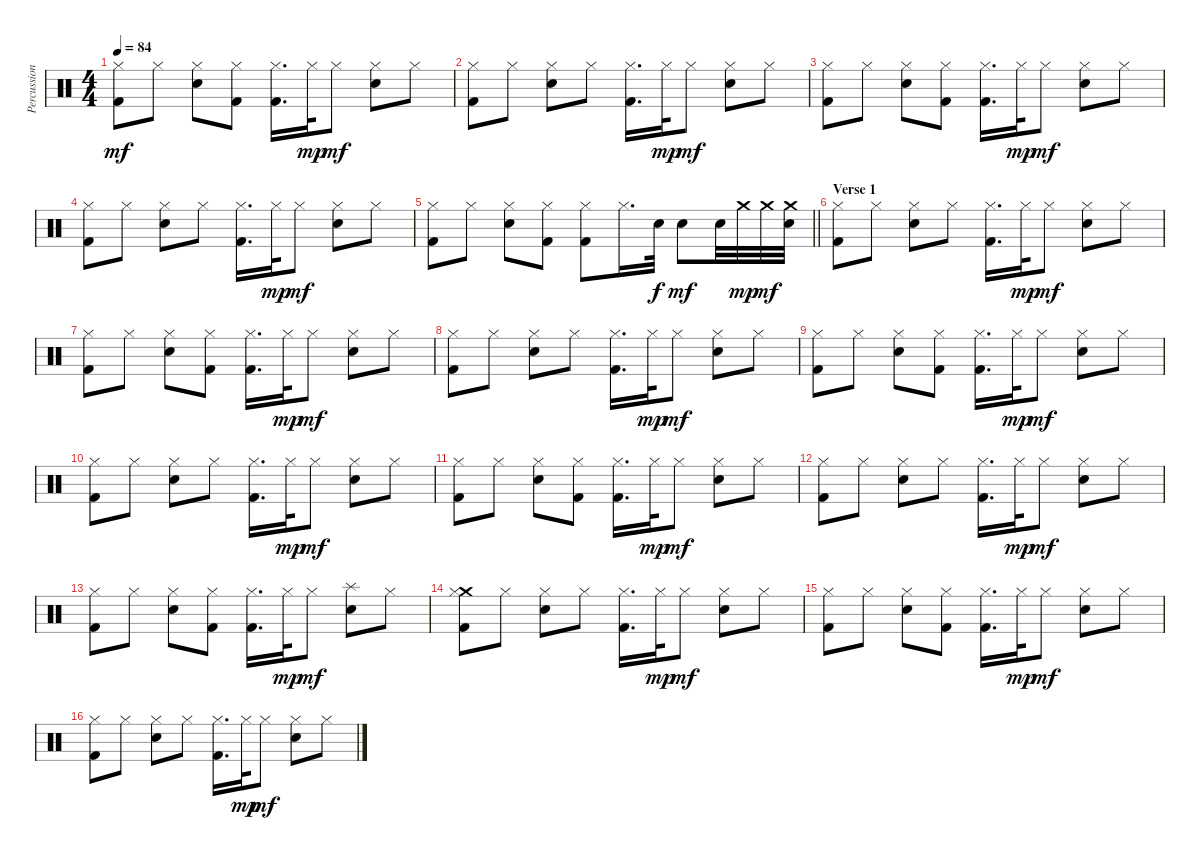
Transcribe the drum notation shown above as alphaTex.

\track ("Percussion" "Percussion") {instrument percussion}
\staff {score}
\articulation defaults
\ts (4 4)
\tempo 84
\clef neutral
\ks c
("Hi-Hat (closed)" "Kick (hit) 2").8{dy mf} "Hi-Hat (closed)".8 ("Hi-Hat (closed)" "Electric Snare (hit)").8 ("Hi-Hat (closed)" "Kick (hit) 2").8 ("Hi-Hat (closed)" "Kick (hit) 2").16{d} "Hi-Hat (closed)".32{dy mp} "Hi-Hat (closed)".8{dy mf} ("Hi-Hat (closed)" "Electric Snare (hit)").8 "Hi-Hat (closed)".8 |
("Hi-Hat (closed)" "Kick (hit) 2").8 "Hi-Hat (closed)".8 ("Hi-Hat (closed)" "Electric Snare (hit)").8 "Hi-Hat (closed)".8 ("Hi-Hat (closed)" "Kick (hit) 2").16{d} "Hi-Hat (closed)".32{dy mp} "Hi-Hat (closed)".8{dy mf} ("Hi-Hat (closed)" "Electric Snare (hit)").8 "Hi-Hat (closed)".8 |
("Hi-Hat (closed)" "Kick (hit) 2").8 "Hi-Hat (closed)".8 ("Hi-Hat (closed)" "Electric Snare (hit)").8 ("Hi-Hat (closed)" "Kick (hit) 2").8 ("Hi-Hat (closed)" "Kick (hit) 2").16{d} "Hi-Hat (closed)".32{dy mp} "Hi-Hat (closed)".8{dy mf} ("Hi-Hat (closed)" "Electric Snare (hit)").8 "Hi-Hat (closed)".8 |
("Hi-Hat (closed)" "Kick (hit) 2").8 "Hi-Hat (closed)".8 ("Hi-Hat (closed)" "Electric Snare (hit)").8 "Hi-Hat (closed)".8 ("Hi-Hat (closed)" "Kick (hit) 2").16{d} "Hi-Hat (closed)".32{dy mp} "Hi-Hat (closed)".8{dy mf} ("Hi-Hat (closed)" "Electric Snare (hit)").8 "Hi-Hat (closed)".8 |
\barLineRight lightlight
("Hi-Hat (closed)" "Kick (hit) 2").8 "Hi-Hat (closed)".8 ("Hi-Hat (closed)" "Electric Snare (hit)").8 ("Hi-Hat (closed)" "Kick (hit) 2").8 ("Hi-Hat (closed)" "Kick (hit) 2").8 "Hi-Hat (closed)".16{d} "Electric Snare (hit)".32{dy f} "Electric Snare (hit)".8{dy mf} "Electric Snare (hit)".32 "Crash medium (hit)".32{dy mp} "Crash medium (hit)".32{dy mf} ("Crash medium (hit)" "Electric Snare (hit)").32 |
\section ("" "Verse 1")
("Hi-Hat (closed)" "Kick (hit) 2").8 "Hi-Hat (closed)".8 ("Hi-Hat (closed)" "Electric Snare (hit)").8 "Hi-Hat (closed)".8 ("Hi-Hat (closed)" "Kick (hit) 2").16{d} "Hi-Hat (closed)".32{dy mp} "Hi-Hat (closed)".8{dy mf} ("Hi-Hat (closed)" "Electric Snare (hit)").8 "Hi-Hat (closed)".8 |
("Hi-Hat (closed)" "Kick (hit) 2").8 "Hi-Hat (closed)".8 ("Hi-Hat (closed)" "Electric Snare (hit)").8 ("Hi-Hat (closed)" "Kick (hit) 2").8 ("Hi-Hat (closed)" "Kick (hit) 2").16{d} "Hi-Hat (closed)".32{dy mp} "Hi-Hat (closed)".8{dy mf} ("Hi-Hat (closed)" "Electric Snare (hit)").8 "Hi-Hat (closed)".8 |
("Hi-Hat (closed)" "Kick (hit) 2").8 "Hi-Hat (closed)".8 ("Hi-Hat (closed)" "Electric Snare (hit)").8 "Hi-Hat (closed)".8 ("Hi-Hat (closed)" "Kick (hit) 2").16{d} "Hi-Hat (closed)".32{dy mp} "Hi-Hat (closed)".8{dy mf} ("Hi-Hat (closed)" "Electric Snare (hit)").8 "Hi-Hat (closed)".8 |
("Hi-Hat (closed)" "Kick (hit) 2").8 "Hi-Hat (closed)".8 ("Hi-Hat (closed)" "Electric Snare (hit)").8 ("Hi-Hat (closed)" "Kick (hit) 2").8 ("Hi-Hat (closed)" "Kick (hit) 2").16{d} "Hi-Hat (closed)".32{dy mp} "Hi-Hat (closed)".8{dy mf} ("Hi-Hat (closed)" "Electric Snare (hit)").8 "Hi-Hat (closed)".8 |
("Hi-Hat (closed)" "Kick (hit) 2").8 "Hi-Hat (closed)".8 ("Hi-Hat (closed)" "Electric Snare (hit)").8 "Hi-Hat (closed)".8 ("Hi-Hat (closed)" "Kick (hit) 2").16{d} "Hi-Hat (closed)".32{dy mp} "Hi-Hat (closed)".8{dy mf} ("Hi-Hat (closed)" "Electric Snare (hit)").8 "Hi-Hat (closed)".8 |
("Hi-Hat (closed)" "Kick (hit) 2").8 "Hi-Hat (closed)".8 ("Hi-Hat (closed)" "Electric Snare (hit)").8 ("Hi-Hat (closed)" "Kick (hit) 2").8 ("Hi-Hat (closed)" "Kick (hit) 2").16{d} "Hi-Hat (closed)".32{dy mp} "Hi-Hat (closed)".8{dy mf} ("Hi-Hat (closed)" "Electric Snare (hit)").8 "Hi-Hat (closed)".8 |
("Hi-Hat (closed)" "Kick (hit) 2").8 "Hi-Hat (closed)".8 ("Hi-Hat (closed)" "Electric Snare (hit)").8 "Hi-Hat (closed)".8 ("Hi-Hat (closed)" "Kick (hit) 2").16{d} "Hi-Hat (closed)".32{dy mp} "Hi-Hat (closed)".8{dy mf} ("Hi-Hat (closed)" "Electric Snare (hit)").8 "Hi-Hat (closed)".8 |
("Hi-Hat (closed)" "Kick (hit) 2").8 "Hi-Hat (closed)".8 ("Hi-Hat (closed)" "Electric Snare (hit)").8 ("Hi-Hat (closed)" "Kick (hit) 2").8 ("Hi-Hat (closed)" "Kick (hit) 2").16{d} "Hi-Hat (closed)".32{dy mp} "Hi-Hat (closed)".8{dy mf} ("Splash (hit)" "Electric Snare (hit)").8 "Hi-Hat (closed)".8 |
("Crash medium (hit)" "Hi-Hat (closed)" "Kick (hit) 2").8 "Hi-Hat (closed)".8 ("Hi-Hat (closed)" "Electric Snare (hit)").8 "Hi-Hat (closed)".8 ("Hi-Hat (closed)" "Kick (hit) 2").16{d} "Hi-Hat (closed)".32{dy mp} "Hi-Hat (closed)".8{dy mf} ("Hi-Hat (closed)" "Electric Snare (hit)").8 "Hi-Hat (closed)".8 |
("Hi-Hat (closed)" "Kick (hit) 2").8 "Hi-Hat (closed)".8 ("Hi-Hat (closed)" "Electric Snare (hit)").8 ("Hi-Hat (closed)" "Kick (hit) 2").8 ("Hi-Hat (closed)" "Kick (hit) 2").16{d} "Hi-Hat (closed)".32{dy mp} "Hi-Hat (closed)".8{dy mf} ("Hi-Hat (closed)" "Electric Snare (hit)").8 "Hi-Hat (closed)".8 |
("Hi-Hat (closed)" "Kick (hit) 2").8 "Hi-Hat (closed)".8 ("Hi-Hat (closed)" "Electric Snare (hit)").8 "Hi-Hat (closed)".8 ("Hi-Hat (closed)" "Kick (hit) 2").16{d} "Hi-Hat (closed)".32{dy mp} "Hi-Hat (closed)".8{dy mf} ("Hi-Hat (closed)" "Electric Snare (hit)").8 "Hi-Hat (closed)".8
